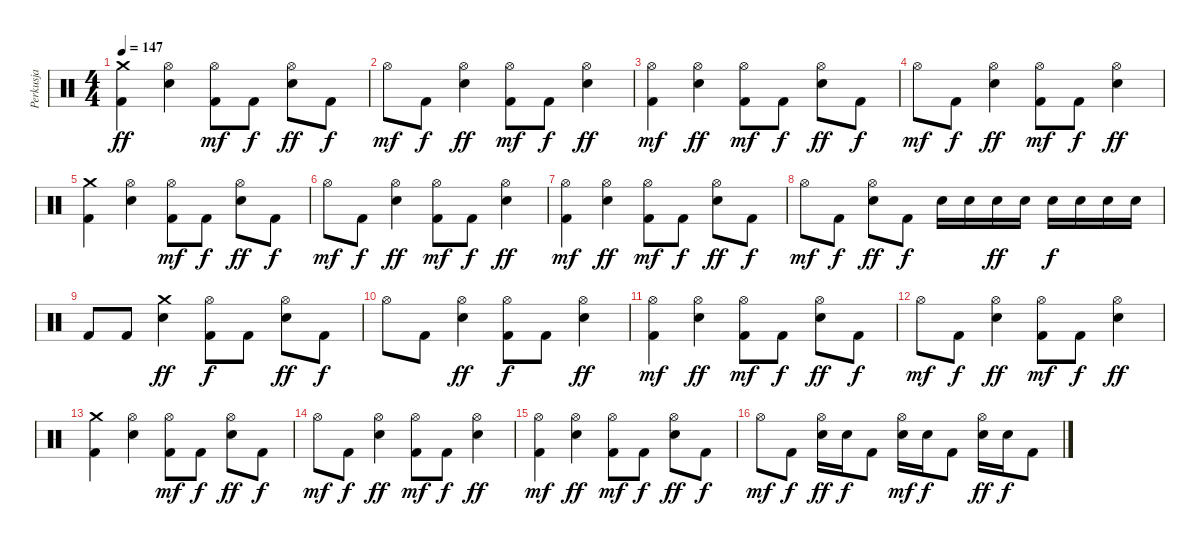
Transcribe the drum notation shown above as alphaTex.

\track ("Perkusja" "Perkusja") {instrument percussion}
\staff {score}
\articulation defaults
\ts (4 4)
\tempo 147
\clef neutral
\ks c
("Crash medium (hit)" "Kick (hit) 2").4{dy ff} ("Hi-Hat (open)" "Electric Snare (hit)").4 ("Hi-Hat (open)" "Kick (hit) 2").8{dy mf} "Kick (hit) 2".8{dy f} ("Hi-Hat (open)" "Electric Snare (hit)").8{dy ff} "Kick (hit) 2".8{dy f} |
"Hi-Hat (open)".8{dy mf} "Kick (hit) 2".8{dy f} ("Hi-Hat (open)" "Electric Snare (hit)").4{dy ff} ("Hi-Hat (open)" "Kick (hit) 2").8{dy mf} "Kick (hit) 2".8{dy f} ("Hi-Hat (open)" "Electric Snare (hit)").4{dy ff} |
("Hi-Hat (open)" "Kick (hit) 2").4{dy mf} ("Hi-Hat (open)" "Electric Snare (hit)").4{dy ff} ("Hi-Hat (open)" "Kick (hit) 2").8{dy mf} "Kick (hit) 2".8{dy f} ("Hi-Hat (open)" "Electric Snare (hit)").8{dy ff} "Kick (hit) 2".8{dy f} |
"Hi-Hat (open)".8{dy mf} "Kick (hit) 2".8{dy f} ("Hi-Hat (open)" "Electric Snare (hit)").4{dy ff} ("Hi-Hat (open)" "Kick (hit) 2").8{dy mf} "Kick (hit) 2".8{dy f} ("Hi-Hat (open)" "Electric Snare (hit)").4{dy ff} |
("Crash medium (hit)" "Kick (hit) 2").4 ("Hi-Hat (open)" "Electric Snare (hit)").4 ("Hi-Hat (open)" "Kick (hit) 2").8{dy mf} "Kick (hit) 2".8{dy f} ("Hi-Hat (open)" "Electric Snare (hit)").8{dy ff} "Kick (hit) 2".8{dy f} |
"Hi-Hat (open)".8{dy mf} "Kick (hit) 2".8{dy f} ("Hi-Hat (open)" "Electric Snare (hit)").4{dy ff} ("Hi-Hat (open)" "Kick (hit) 2").8{dy mf} "Kick (hit) 2".8{dy f} ("Hi-Hat (open)" "Electric Snare (hit)").4{dy ff} |
("Hi-Hat (open)" "Kick (hit) 2").4{dy mf} ("Hi-Hat (open)" "Electric Snare (hit)").4{dy ff} ("Hi-Hat (open)" "Kick (hit) 2").8{dy mf} "Kick (hit) 2".8{dy f} ("Hi-Hat (open)" "Electric Snare (hit)").8{dy ff} "Kick (hit) 2".8{dy f} |
"Hi-Hat (open)".8{dy mf} "Kick (hit) 2".8{dy f} ("Hi-Hat (open)" "Electric Snare (hit)").8{dy ff} "Kick (hit) 2".8{dy f} "Electric Snare (hit)".16 "Electric Snare (hit)".16 "Electric Snare (hit)".16{dy ff} "Electric Snare (hit)".16 "Electric Snare (hit)".16{dy f} "Electric Snare (hit)".16 "Electric Snare (hit)".16 "Electric Snare (hit)".16 |
"Kick (hit) 2".8 "Kick (hit) 2".8 ("Crash medium (hit)" "Electric Snare (hit)").4{dy ff} ("Hi-Hat (open)" "Kick (hit) 2").8{dy f} "Kick (hit) 2".8 ("Hi-Hat (open)" "Electric Snare (hit)").8{dy ff} "Kick (hit) 2".8{dy f} |
"Hi-Hat (open)".8 "Kick (hit) 2".8 ("Hi-Hat (open)" "Electric Snare (hit)").4{dy ff} ("Hi-Hat (open)" "Kick (hit) 2").8{dy f} "Kick (hit) 2".8 ("Hi-Hat (open)" "Electric Snare (hit)").4{dy ff} |
("Hi-Hat (open)" "Kick (hit) 2").4{dy mf} ("Hi-Hat (open)" "Electric Snare (hit)").4{dy ff} ("Hi-Hat (open)" "Kick (hit) 2").8{dy mf} "Kick (hit) 2".8{dy f} ("Hi-Hat (open)" "Electric Snare (hit)").8{dy ff} "Kick (hit) 2".8{dy f} |
"Hi-Hat (open)".8{dy mf} "Kick (hit) 2".8{dy f} ("Hi-Hat (open)" "Electric Snare (hit)").4{dy ff} ("Hi-Hat (open)" "Kick (hit) 2").8{dy mf} "Kick (hit) 2".8{dy f} ("Hi-Hat (open)" "Electric Snare (hit)").4{dy ff} |
("Crash medium (hit)" "Kick (hit) 2").4{volume 10} ("Hi-Hat (open)" "Electric Snare (hit)").4 ("Hi-Hat (open)" "Kick (hit) 2").8{dy mf} "Kick (hit) 2".8{dy f} ("Hi-Hat (open)" "Electric Snare (hit)").8{dy ff} "Kick (hit) 2".8{dy f} |
"Hi-Hat (open)".8{dy mf} "Kick (hit) 2".8{dy f} ("Hi-Hat (open)" "Electric Snare (hit)").4{dy ff} ("Hi-Hat (open)" "Kick (hit) 2").8{dy mf} "Kick (hit) 2".8{dy f} ("Hi-Hat (open)" "Electric Snare (hit)").4{dy ff} |
("Hi-Hat (open)" "Kick (hit) 2").4{dy mf volume 9} ("Hi-Hat (open)" "Electric Snare (hit)").4{dy ff} ("Hi-Hat (open)" "Kick (hit) 2").8{dy mf} "Kick (hit) 2".8{dy f} ("Hi-Hat (open)" "Electric Snare (hit)").8{dy ff} "Kick (hit) 2".8{dy f} |
"Hi-Hat (open)".8{dy mf} "Kick (hit) 2".8{dy f} ("Hi-Hat (open)" "Electric Snare (hit)").16{dy ff} "Electric Snare (hit)".16{dy f} "Kick (hit) 2".8 ("Hi-Hat (open)" "Electric Snare (hit)").16{dy mf} "Electric Snare (hit)".16{dy f} "Kick (hit) 2".8 ("Hi-Hat (open)" "Electric Snare (hit)").16{dy ff} "Electric Snare (hit)".16{dy f} "Kick (hit) 2".8
